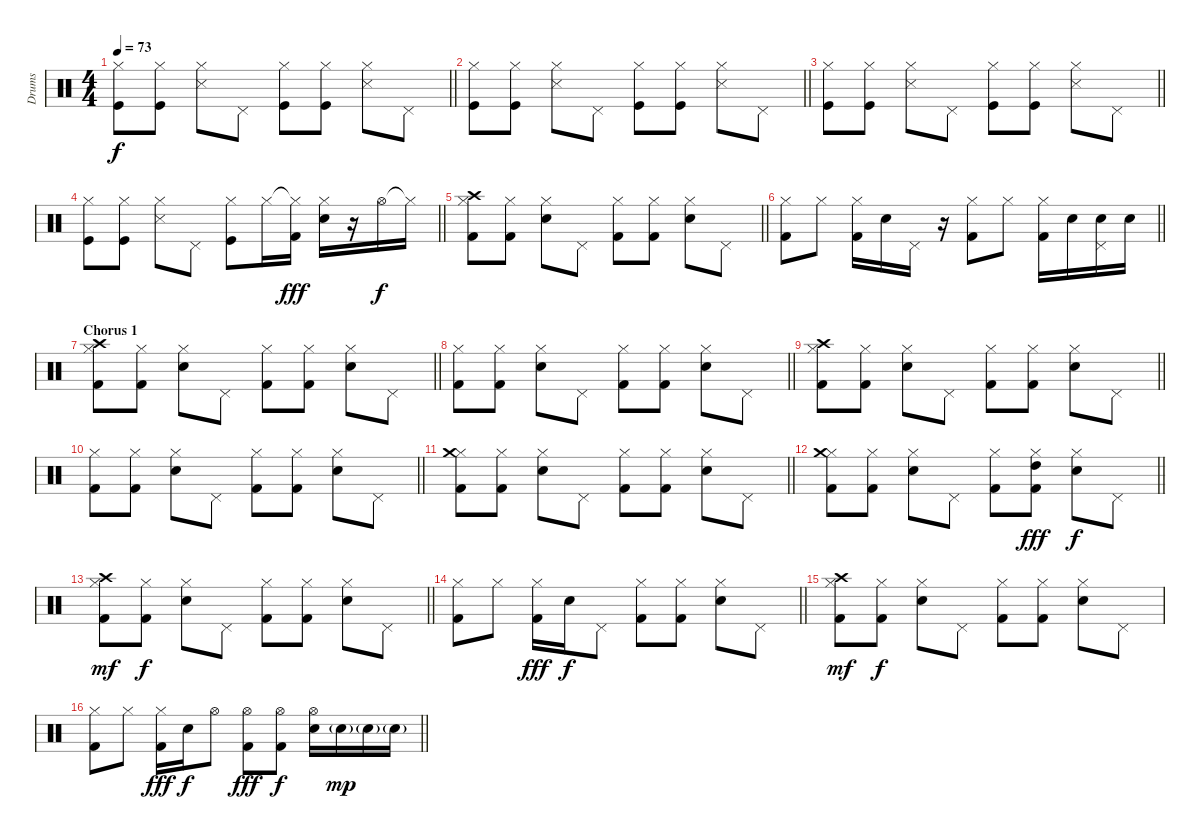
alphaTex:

\track ("Drums" "Drums") {instrument percussion}
\staff {score}
\articulation defaults
\ts (4 4)
\tempo 73
\clef neutral
\barLineRight lightlight
\ks c
("Hi-Hat (closed)" "Kick (hit)").8{dy f} ("Hi-Hat (closed)" "Kick (hit)").8 ("Hi-Hat (closed)" "Snare (side stick) 3").8 "Pedal Hi-Hat (hit)".8 ("Hi-Hat (closed)" "Kick (hit)").8 ("Hi-Hat (closed)" "Kick (hit)").8 ("Hi-Hat (closed)" "Snare (side stick) 3").8 "Pedal Hi-Hat (hit)".8 |
\barLineRight lightlight
("Hi-Hat (closed)" "Kick (hit)").8 ("Hi-Hat (closed)" "Kick (hit)").8 ("Hi-Hat (closed)" "Snare (side stick) 3").8 "Pedal Hi-Hat (hit)".8 ("Hi-Hat (closed)" "Kick (hit)").8 ("Hi-Hat (closed)" "Kick (hit)").8 ("Hi-Hat (closed)" "Snare (side stick) 3").8 "Pedal Hi-Hat (hit)".8 |
\barLineRight lightlight
("Hi-Hat (closed)" "Kick (hit)").8 ("Hi-Hat (closed)" "Kick (hit)").8 ("Hi-Hat (closed)" "Snare (side stick) 3").8 "Pedal Hi-Hat (hit)".8 ("Hi-Hat (closed)" "Kick (hit)").8 ("Hi-Hat (closed)" "Kick (hit)").8 ("Hi-Hat (closed)" "Snare (side stick) 3").8 "Pedal Hi-Hat (hit)".8 |
\barLineRight lightlight
("Hi-Hat (closed)" "Kick (hit)").8 ("Hi-Hat (closed)" "Kick (hit)").8 ("Hi-Hat (closed)" "Snare (side stick) 3").8 "Pedal Hi-Hat (hit)".8 ("Hi-Hat (closed)" "Kick (hit)").8 "Hi-Hat (closed)".16 ("Hi-Hat (closed)"{t} "Kick (hit) 2").16{dy fff} ("Hi-Hat (closed)" "Snare (hit) 2").16 r.16 "Hi-Hat (open)".16{dy f} "Hi-Hat (closed)"{t}.16 |
\barLineRight lightlight
("Hi-Hat (closed)" "Kick (hit) 2" "Crash high (hit)").8 ("Hi-Hat (closed)" "Kick (hit) 2").8 ("Hi-Hat (closed)" "Snare (hit) 2").8 "Pedal Hi-Hat (hit)".8 ("Hi-Hat (closed)" "Kick (hit) 2").8 ("Hi-Hat (closed)" "Kick (hit) 2").8 ("Hi-Hat (closed)" "Snare (hit) 2").8 "Pedal Hi-Hat (hit)".8 |
\barLineRight lightlight
("Hi-Hat (closed)" "Kick (hit) 2").8 "Hi-Hat (closed)".8 ("Hi-Hat (closed)" "Kick (hit) 2").16 "Snare (hit) 2".16 "Pedal Hi-Hat (hit)".16 r.16 ("Hi-Hat (closed)" "Kick (hit) 2").8 "Hi-Hat (closed)".8 ("Hi-Hat (closed)" "Kick (hit) 2").16 "Snare (hit) 2".16 ("Pedal Hi-Hat (hit)" "Snare (hit) 2").16 "Snare (hit) 2".16 |
\section ("" "Chorus 1")
\barLineRight lightlight
("Hi-Hat (closed)" "Kick (hit) 2" "Crash high (hit)").8 ("Hi-Hat (closed)" "Kick (hit) 2").8 ("Hi-Hat (closed)" "Snare (hit) 2").8 "Pedal Hi-Hat (hit)".8 ("Hi-Hat (closed)" "Kick (hit) 2").8 ("Hi-Hat (closed)" "Kick (hit) 2").8 ("Hi-Hat (closed)" "Snare (hit) 2").8 "Pedal Hi-Hat (hit)".8 |
\barLineRight lightlight
("Hi-Hat (closed)" "Kick (hit) 2").8 ("Hi-Hat (closed)" "Kick (hit) 2").8 ("Hi-Hat (closed)" "Snare (hit) 2").8 "Pedal Hi-Hat (hit)".8 ("Hi-Hat (closed)" "Kick (hit) 2").8 ("Hi-Hat (closed)" "Kick (hit) 2").8 ("Hi-Hat (closed)" "Snare (hit) 2").8 "Pedal Hi-Hat (hit)".8 |
\barLineRight lightlight
("Hi-Hat (closed)" "Kick (hit) 2" "Crash high (hit)").8 ("Hi-Hat (closed)" "Kick (hit) 2").8 ("Hi-Hat (closed)" "Snare (hit) 2").8 "Pedal Hi-Hat (hit)".8 ("Hi-Hat (closed)" "Kick (hit) 2").8 ("Hi-Hat (closed)" "Kick (hit) 2").8 ("Hi-Hat (closed)" "Snare (hit) 2").8 "Pedal Hi-Hat (hit)".8 |
\barLineRight lightlight
("Hi-Hat (closed)" "Kick (hit) 2").8 ("Hi-Hat (closed)" "Kick (hit) 2").8 ("Hi-Hat (closed)" "Snare (hit) 2").8 "Pedal Hi-Hat (hit)".8 ("Hi-Hat (closed)" "Kick (hit) 2").8 ("Hi-Hat (closed)" "Kick (hit) 2").8 ("Hi-Hat (closed)" "Snare (hit) 2").8 "Pedal Hi-Hat (hit)".8 |
\barLineRight lightlight
("Hi-Hat (closed)" "Kick (hit) 2" "Crash medium (hit)").8 ("Hi-Hat (closed)" "Kick (hit) 2").8 ("Hi-Hat (closed)" "Snare (hit) 2").8 "Pedal Hi-Hat (hit)".8 ("Hi-Hat (closed)" "Kick (hit) 2").8 ("Hi-Hat (closed)" "Kick (hit) 2").8 ("Hi-Hat (closed)" "Snare (hit) 2").8 "Pedal Hi-Hat (hit)".8 |
\barLineRight lightlight
("Hi-Hat (closed)" "Kick (hit) 2" "Crash medium (hit)").8 ("Hi-Hat (closed)" "Kick (hit) 2").8 ("Hi-Hat (closed)" "Snare (hit) 2").8 "Pedal Hi-Hat (hit)".8 ("Hi-Hat (closed)" "Kick (hit) 2").8 ("Hi-Hat (closed)" "Kick (hit) 2" "High Tom (hit)").8{dy fff} ("Hi-Hat (closed)" "Snare (hit) 2").8{dy f} "Pedal Hi-Hat (hit)".8 |
\barLineRight lightlight
("Hi-Hat (closed)" "Kick (hit) 2" "Crash high (hit)").8{dy mf} ("Hi-Hat (closed)" "Kick (hit) 2").8{dy f} ("Hi-Hat (closed)" "Snare (hit) 2").8 "Pedal Hi-Hat (hit)".8 ("Hi-Hat (closed)" "Kick (hit) 2").8 ("Hi-Hat (closed)" "Kick (hit) 2").8 ("Hi-Hat (closed)" "Snare (hit) 2").8 "Pedal Hi-Hat (hit)".8 |
\barLineRight lightlight
("Hi-Hat (closed)" "Kick (hit) 2").8 "Hi-Hat (closed)".8 ("Hi-Hat (closed)" "Kick (hit) 2").16{dy fff} "Snare (hit) 2".16{dy f} "Pedal Hi-Hat (hit)".8 ("Hi-Hat (closed)" "Kick (hit) 2").8 ("Hi-Hat (closed)" "Kick (hit) 2").8 ("Hi-Hat (closed)" "Snare (hit) 2").8 "Pedal Hi-Hat (hit)".8 |
("Hi-Hat (closed)" "Kick (hit) 2" "Crash high (hit)").8{dy mf} ("Hi-Hat (closed)" "Kick (hit) 2").8{dy f} ("Hi-Hat (closed)" "Snare (hit) 2").8 "Pedal Hi-Hat (hit)".8 ("Hi-Hat (closed)" "Kick (hit) 2").8 ("Hi-Hat (closed)" "Kick (hit) 2").8 ("Hi-Hat (closed)" "Snare (hit) 2").8 "Pedal Hi-Hat (hit)".8 |
\barLineRight lightlight
("Hi-Hat (closed)" "Kick (hit) 2").8 "Hi-Hat (closed)".8 ("Hi-Hat (closed)" "Kick (hit) 2").16{dy fff} "Snare (hit) 2".16{dy f} "Hi-Hat (open)".8 ("Hi-Hat (open)" "Kick (hit) 2").8{dy fff} ("Hi-Hat (open)" "Kick (hit) 2").8{dy f} ("Hi-Hat (open)" "Snare (hit) 2").16 "Snare (hit) 2"{g}.16{dy mp} "Snare (hit) 2"{g}.16 "Snare (hit) 2"{g}.16
